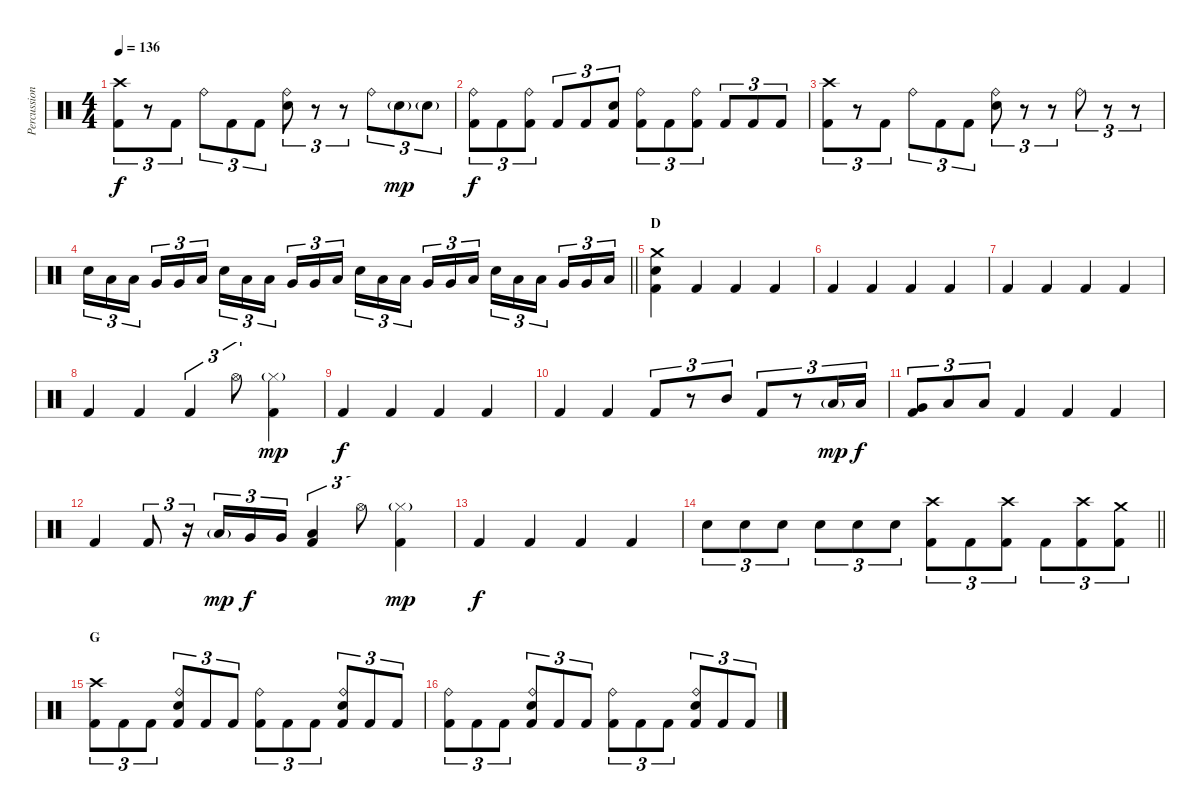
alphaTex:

\track ("Percussion" "Percussion") {instrument percussion}
\staff {score}
\articulation defaults
\ts (4 4)
\tempo 136
\clef neutral
\ks c
("Crash high (hit)" "Kick (hit) 2").8{tu (3 2) dy f} r.8{tu (3 2)} "Kick (hit) 2".8{tu (3 2)} "Ride (bell)".8{tu (3 2)} "Kick (hit) 2".8{tu (3 2)} "Kick (hit) 2".8{tu (3 2)} ("Ride (bell)" "Electric Snare (hit)").8{tu (3 2)} r.8{tu (3 2)} r.8{tu (3 2)} "Ride (bell)".8{tu (3 2)} "Electric Snare (hit)"{g}.8{tu (3 2) dy mp} "Electric Snare (hit)"{g}.8{tu (3 2)} |
("Ride (bell)" "Kick (hit) 2").8{tu (3 2) dy f} "Kick (hit) 2".8{tu (3 2)} ("Ride (bell)" "Kick (hit) 2").8{tu (3 2)} "Kick (hit) 2".8{tu (3 2)} "Kick (hit) 2".8{tu (3 2)} ("Electric Snare (hit)" "Kick (hit) 2").8{tu (3 2)} ("Ride (bell)" "Kick (hit) 2").8{tu (3 2)} "Kick (hit) 2".8{tu (3 2)} ("Ride (bell)" "Kick (hit) 2").8{tu (3 2)} "Kick (hit) 2".8{tu (3 2)} "Kick (hit) 2".8{tu (3 2)} "Kick (hit) 2".8{tu (3 2)} |
("Crash high (hit)" "Kick (hit) 2").8{tu (3 2)} r.8{tu (3 2)} "Kick (hit) 2".8{tu (3 2)} "Ride (bell)".8{tu (3 2)} "Kick (hit) 2".8{tu (3 2)} "Kick (hit) 2".8{tu (3 2)} ("Ride (bell)" "Electric Snare (hit)").8{tu (3 2)} r.8{tu (3 2)} r.8{tu (3 2)} "Ride (bell)".8{tu (3 2)} r.8{tu (3 2)} r.8{tu (3 2)} |
\barLineRight lightlight "Electric Snare (hit)".16{tu (3 2)} "Low Tom (hit)".16{tu (3 2)} "Low Tom (hit)".16{tu (3 2) beam splitsecondary} "Very Low Tom (hit)".16{tu (3 2)} "Very Low Tom (hit)".16{tu (3 2)} "Low Floor Tom (hit)".16{tu (3 2)} "Electric Snare (hit)".16{tu (3 2)} "Low Tom (hit)".16{tu (3 2)} "Low Tom (hit)".16{tu (3 2) beam splitsecondary} "Very Low Tom (hit)".16{tu (3 2)} "Very Low Tom (hit)".16{tu (3 2)} "Low Floor Tom (hit)".16{tu (3 2)} "Electric Snare (hit)".16{tu (3 2)} "Low Tom (hit)".16{tu (3 2)} "Low Tom (hit)".16{tu (3 2) beam splitsecondary} "Very Low Tom (hit)".16{tu (3 2)} "Very Low Tom (hit)".16{tu (3 2)} "Low Floor Tom (hit)".16{tu (3 2)} "Electric Snare (hit)".16{tu (3 2)} "Low Tom (hit)".16{tu (3 2)} "Low Tom (hit)".16{tu (3 2) beam splitsecondary} "Very Low Tom (hit)".16{tu (3 2)} "Very Low Tom (hit)".16{tu (3 2)} "Low Floor Tom (hit)".16{tu (3 2)}
|
\section ("" "D")
("Crash medium (hit)" "Electric Snare (hit)" "Kick (hit) 2").4 "Kick (hit) 2".4 "Kick (hit) 2".4 "Kick (hit) 2".4 |
"Kick (hit) 2".4 "Kick (hit) 2".4 "Kick (hit) 2".4 "Kick (hit) 2".4 |
"Kick (hit) 2".4 "Kick (hit) 2".4 "Kick (hit) 2".4 "Kick (hit) 2".4 |
"Kick (hit) 2".4 "Kick (hit) 2".4 "Kick (hit) 2".4{tu (3 2)} "Hi-Hat (open)".8{tu (3 2)} ("Hi-Hat (closed)"{g} "Kick (hit) 2").4{dy mp} |
"Kick (hit) 2".4{dy f} "Kick (hit) 2".4 "Kick (hit) 2".4 "Kick (hit) 2".4 |
"Kick (hit) 2".4 "Kick (hit) 2".4 "Kick (hit) 2".8{tu (3 2)} r.8{tu (3 2)} "Mid Tom (hit)".8{tu (3 2)} "Kick (hit) 2".8{tu (3 2)} r.8{tu (3 2)} "Low Floor Tom (hit)"{g}.16{tu (3 2) dy mp} "Low Floor Tom (hit)".16{tu (3 2) dy f} |
("Very Low Tom (hit)" "Kick (hit) 2").8{tu (3 2)} "Low Tom (hit)".8{tu (3 2)} "Low Tom (hit)".8{tu (3 2)} "Kick (hit) 2".4 "Kick (hit) 2".4 "Kick (hit) 2".4 |
"Kick (hit) 2".4 "Kick (hit) 2".8{tu (3 2)} r.16{tu (3 2)} "Low Tom (hit)"{g}.16{tu (3 2) dy mp} "Very Low Tom (hit)".16{tu (3 2) dy f} "Very Low Tom (hit)".16{tu (3 2)} ("Low Floor Tom (hit)" "Kick (hit) 2").4{tu (3 2)} "Hi-Hat (open)".8{tu (3 2)} ("Hi-Hat (closed)"{g} "Kick (hit) 2").4{dy mp} |
"Kick (hit) 2".4{dy f} "Kick (hit) 2".4 "Kick (hit) 2".4 "Kick (hit) 2".4 |
\barLineRight lightlight "Electric Snare (hit)".8{tu (3 2)} "Electric Snare (hit)".8{tu (3 2)} "Electric Snare (hit)".8{tu (3 2)} "Electric Snare (hit)".8{tu (3 2)} "Electric Snare (hit)".8{tu (3 2)} "Electric Snare (hit)".8{tu (3 2)}
("Crash high (hit)" "Kick (hit) 2").8{tu (3 2)} "Kick (hit) 2".8{tu (3 2)} ("Crash high (hit)" "Kick (hit) 2").8{tu (3 2)} "Kick (hit) 2".8{tu (3 2)} ("Crash high (hit)" "Kick (hit) 2").8{tu (3 2)} ("Crash medium (hit)" "Kick (hit) 2").8{tu (3 2)} |
\section ("" "G")
("Crash high (hit)" "Kick (hit) 2").8{tu (3 2)} "Kick (hit) 2".8{tu (3 2)} "Kick (hit) 2".8{tu (3 2)} ("Ride (bell)" "Electric Snare (hit)" "Kick (hit) 2").8{tu (3 2)} "Kick (hit) 2".8{tu (3 2)} "Kick (hit) 2".8{tu (3 2)} ("Ride (bell)" "Kick (hit) 2").8{tu (3 2)} "Kick (hit) 2".8{tu (3 2)} "Kick (hit) 2".8{tu (3 2)} ("Ride (bell)" "Electric Snare (hit)" "Kick (hit) 2").8{tu (3 2)} "Kick (hit) 2".8{tu (3 2)} "Kick (hit) 2".8{tu (3 2)} |
("Ride (bell)" "Kick (hit) 2").8{tu (3 2)} "Kick (hit) 2".8{tu (3 2)} "Kick (hit) 2".8{tu (3 2)} ("Ride (bell)" "Electric Snare (hit)" "Kick (hit) 2").8{tu (3 2)} "Kick (hit) 2".8{tu (3 2)} "Kick (hit) 2".8{tu (3 2)} ("Ride (bell)" "Kick (hit) 2").8{tu (3 2)} "Kick (hit) 2".8{tu (3 2)} "Kick (hit) 2".8{tu (3 2)} ("Ride (bell)" "Electric Snare (hit)" "Kick (hit) 2").8{tu (3 2)} "Kick (hit) 2".8{tu (3 2)} "Kick (hit) 2".8{tu (3 2)}
